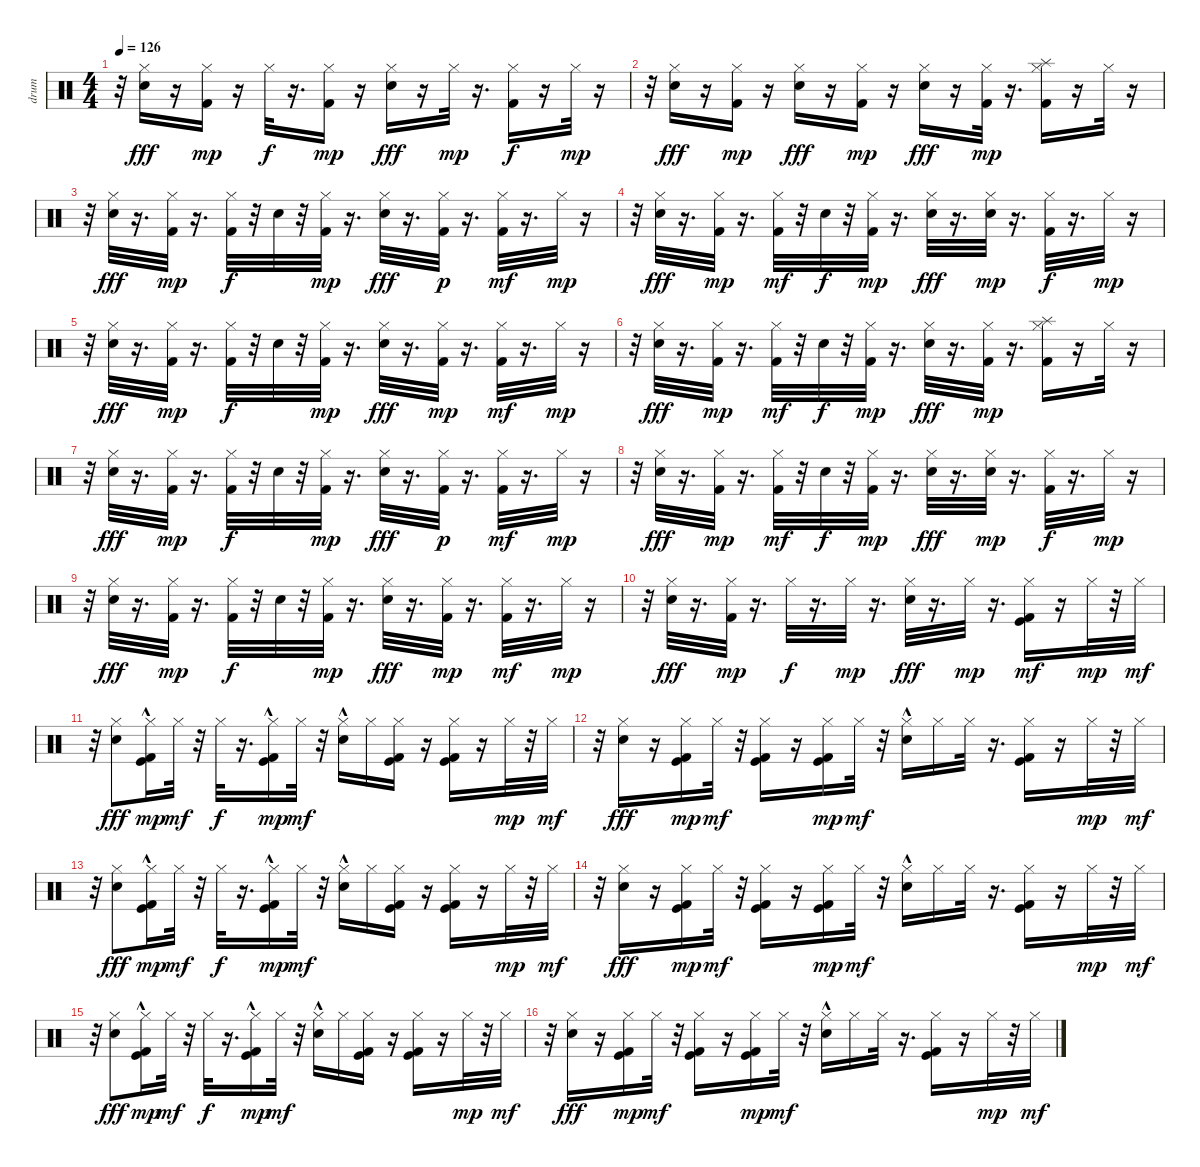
\track ("drum" "drum") {instrument percussion}
\staff {score}
\articulation defaults
\ts (4 4)
\tempo 126
\clef neutral
\ks c
r.32{dy mp} ("Electric Snare (hit)" "Hi-Hat (closed)").16{dy fff} r.16 ("Kick (hit) 2" "Hi-Hat (closed)").16{dy mp} r.16 "Hi-Hat (closed)".32{dy f} r.16{d} ("Kick (hit) 2" "Hi-Hat (closed)").16{dy mp} r.16 ("Electric Snare (hit)" "Hi-Hat (closed)").16{dy fff} r.16 "Hi-Hat (closed)".32{dy mp} r.16{d} ("Kick (hit) 2" "Hi-Hat (closed)").16{dy f} r.16 "Hi-Hat (closed)".32{dy mp} r.16 |
r.32 ("Electric Snare (hit)" "Hi-Hat (closed)").16{dy fff} r.16 ("Kick (hit) 2" "Hi-Hat (closed)").16{dy mp} r.16 ("Electric Snare (hit)" "Hi-Hat (closed)").16{dy fff} r.16 ("Kick (hit) 2" "Hi-Hat (closed)").16{dy mp} r.16 ("Electric Snare (hit)" "Hi-Hat (closed)").16{dy fff} r.16 ("Kick (hit) 2" "Hi-Hat (closed)").32{dy mp} r.16{d} ("Splash (hit)" "Kick (hit) 2" "Hi-Hat (closed)").16 r.16 "Hi-Hat (closed)".32 r.16 |
r.32 ("Electric Snare (hit)" "Hi-Hat (closed)").32{dy fff} r.16{d} ("Kick (hit) 2" "Hi-Hat (closed)").32{dy mp} r.16{d} ("Kick (hit) 2" "Hi-Hat (closed)").32{dy f} r.32 "Electric Snare (hit)".32 r.32 ("Kick (hit) 2" "Hi-Hat (closed)").32{dy mp} r.16{d} ("Electric Snare (hit)" "Hi-Hat (closed)").32{dy fff} r.16{d} ("Kick (hit) 2" "Hi-Hat (closed)").32{dy p} r.16{d} ("Kick (hit) 2" "Hi-Hat (closed)").32{dy mf} r.16{d} "Hi-Hat (closed)".32{dy mp} r.16 |
r.32 ("Electric Snare (hit)" "Hi-Hat (closed)").32{dy fff} r.16{d} ("Kick (hit) 2" "Hi-Hat (closed)").32{dy mp} r.16{d} ("Kick (hit) 2" "Hi-Hat (closed)").32{dy mf} r.32 "Electric Snare (hit)".32{dy f} r.32 ("Kick (hit) 2" "Hi-Hat (closed)").32{dy mp} r.16{d} ("Electric Snare (hit)" "Hi-Hat (closed)").32{dy fff} r.16{d} ("Electric Snare (hit)" "Hi-Hat (closed)").32{dy mp} r.16{d} ("Kick (hit) 2" "Hi-Hat (closed)").32{dy f} r.16{d} "Hi-Hat (closed)".32{dy mp} r.16 |
r.32 ("Electric Snare (hit)" "Hi-Hat (closed)").32{dy fff} r.16{d} ("Kick (hit) 2" "Hi-Hat (closed)").32{dy mp} r.16{d} ("Kick (hit) 2" "Hi-Hat (closed)").32{dy f} r.32 "Electric Snare (hit)".32 r.32 ("Kick (hit) 2" "Hi-Hat (closed)").32{dy mp} r.16{d} ("Electric Snare (hit)" "Hi-Hat (closed)").32{dy fff} r.16{d} ("Kick (hit) 2" "Hi-Hat (closed)").32{dy mp} r.16{d} ("Kick (hit) 2" "Hi-Hat (closed)").32{dy mf} r.16{d} "Hi-Hat (closed)".32{dy mp} r.16 |
r.32 ("Electric Snare (hit)" "Hi-Hat (closed)").32{dy fff} r.16{d} ("Kick (hit) 2" "Hi-Hat (closed)").32{dy mp} r.16{d} ("Kick (hit) 2" "Hi-Hat (closed)").32{dy mf} r.32 "Electric Snare (hit)".32{dy f} r.32 ("Kick (hit) 2" "Hi-Hat (closed)").32{dy mp} r.16{d} ("Electric Snare (hit)" "Hi-Hat (closed)").32{dy fff} r.16{d} ("Kick (hit) 2" "Hi-Hat (closed)").32{dy mp} r.16{d} ("Splash (hit)" "Kick (hit) 2" "Hi-Hat (closed)").16 r.16 "Hi-Hat (closed)".32 r.16 |
r.32 ("Electric Snare (hit)" "Hi-Hat (closed)").32{dy fff} r.16{d} ("Kick (hit) 2" "Hi-Hat (closed)").32{dy mp} r.16{d} ("Kick (hit) 2" "Hi-Hat (closed)").32{dy f} r.32 "Electric Snare (hit)".32 r.32 ("Kick (hit) 2" "Hi-Hat (closed)").32{dy mp} r.16{d} ("Electric Snare (hit)" "Hi-Hat (closed)").32{dy fff} r.16{d} ("Kick (hit) 2" "Hi-Hat (closed)").32{dy p} r.16{d} ("Kick (hit) 2" "Hi-Hat (closed)").32{dy mf} r.16{d} "Hi-Hat (closed)".32{dy mp} r.16 |
r.32 ("Electric Snare (hit)" "Hi-Hat (closed)").32{dy fff} r.16{d} ("Kick (hit) 2" "Hi-Hat (closed)").32{dy mp} r.16{d} ("Kick (hit) 2" "Hi-Hat (closed)").32{dy mf} r.32 "Electric Snare (hit)".32{dy f} r.32 ("Kick (hit) 2" "Hi-Hat (closed)").32{dy mp} r.16{d} ("Electric Snare (hit)" "Hi-Hat (closed)").32{dy fff} r.16{d} ("Electric Snare (hit)" "Hi-Hat (closed)").32{dy mp} r.16{d} ("Kick (hit) 2" "Hi-Hat (closed)").32{dy f} r.16{d} "Hi-Hat (closed)".32{dy mp} r.16 |
r.32 ("Electric Snare (hit)" "Hi-Hat (closed)").32{dy fff} r.16{d} ("Kick (hit) 2" "Hi-Hat (closed)").32{dy mp} r.16{d} ("Kick (hit) 2" "Hi-Hat (closed)").32{dy f} r.32 "Electric Snare (hit)".32 r.32 ("Kick (hit) 2" "Hi-Hat (closed)").32{dy mp} r.16{d} ("Electric Snare (hit)" "Hi-Hat (closed)").32{dy fff} r.16{d} ("Kick (hit) 2" "Hi-Hat (closed)").32{dy mp} r.16{d} ("Kick (hit) 2" "Hi-Hat (closed)").32{dy mf} r.16{d} "Hi-Hat (closed)".32{dy mp} r.16 |
r.32 ("Electric Snare (hit)" "Hi-Hat (closed)").32{dy fff} r.16{d} ("Kick (hit) 2" "Hi-Hat (closed)").32{dy mp} r.16{d} "Hi-Hat (closed)".32{dy f} r.16{d} "Hi-Hat (closed)".32{dy mp} r.16{d} ("Electric Snare (hit)" "Hi-Hat (closed)").32{dy fff} r.16{d} "Hi-Hat (closed)".32{dy mp} r.16{d} ("Kick (hit) 2" "Kick (hit)" "Hi-Hat (closed)").16{dy mf} r.16 "Hi-Hat (closed)".32{dy mp} r.32 "Hi-Hat (closed)".32{dy mf} |
r.32 ("Electric Snare (hit)" "Hi-Hat (closed)").8{dy fff} ("Kick (hit)" "Kick (hit) 2"{hac} "Hi-Hat (closed)").16{dy mp} "Hi-Hat (closed)".32{dy mf} r.32 "Hi-Hat (closed)".32{dy f} r.16{d} ("Kick (hit) 2"{hac} "Kick (hit)" "Hi-Hat (closed)").16{dy mp} "Hi-Hat (closed)".32{dy mf} r.32 ("Electric Snare (hit)"{hac} "Hi-Hat (closed)").16 "Hi-Hat (closed)".16 ("Kick (hit) 2" "Kick (hit)" "Hi-Hat (closed)").16 r.16 ("Kick (hit) 2" "Kick (hit)" "Hi-Hat (closed)").16 r.16 "Hi-Hat (closed)".32{dy mp} r.32 "Hi-Hat (closed)".32{dy mf} |
r.32 ("Electric Snare (hit)" "Hi-Hat (closed)").16{dy fff} r.16 ("Kick (hit) 2" "Kick (hit)" "Hi-Hat (closed)").16{dy mp} "Hi-Hat (closed)".32{dy mf} r.32 ("Kick (hit)" "Kick (hit) 2" "Hi-Hat (closed)").16 r.16 ("Kick (hit) 2" "Kick (hit)" "Hi-Hat (closed)").16{dy mp} "Hi-Hat (closed)".32{dy mf} r.32 ("Electric Snare (hit)"{hac} "Hi-Hat (closed)").16 "Hi-Hat (closed)".16 "Hi-Hat (closed)".32 r.16{d} ("Kick (hit) 2" "Kick (hit)" "Hi-Hat (closed)").16 r.16 "Hi-Hat (closed)".32{dy mp} r.32 "Hi-Hat (closed)".32{dy mf} |
r.32 ("Electric Snare (hit)" "Hi-Hat (closed)").8{dy fff} ("Kick (hit) 2"{hac} "Kick (hit)" "Hi-Hat (closed)").16{dy mp} "Hi-Hat (closed)".32{dy mf} r.32 "Hi-Hat (closed)".32{dy f} r.16{d} ("Kick (hit) 2"{hac} "Kick (hit)" "Hi-Hat (closed)").16{dy mp} "Hi-Hat (closed)".32{dy mf} r.32 ("Electric Snare (hit)"{hac} "Hi-Hat (closed)").16 "Hi-Hat (closed)".16 ("Kick (hit) 2" "Kick (hit)" "Hi-Hat (closed)").16 r.16 ("Kick (hit) 2" "Kick (hit)" "Hi-Hat (closed)").16 r.16 "Hi-Hat (closed)".32{dy mp} r.32 "Hi-Hat (closed)".32{dy mf} |
r.32 ("Electric Snare (hit)" "Hi-Hat (closed)").16{dy fff} r.16 ("Kick (hit)" "Kick (hit) 2" "Hi-Hat (closed)").16{dy mp} "Hi-Hat (closed)".32{dy mf} r.32 ("Kick (hit) 2" "Kick (hit)" "Hi-Hat (closed)").16 r.16 ("Kick (hit) 2" "Kick (hit)" "Hi-Hat (closed)").16{dy mp} "Hi-Hat (closed)".32{dy mf} r.32 ("Electric Snare (hit)"{hac} "Hi-Hat (closed)").16 "Hi-Hat (closed)".16 "Hi-Hat (closed)".32 r.16{d} ("Kick (hit)" "Kick (hit) 2" "Hi-Hat (closed)").16 r.16 "Hi-Hat (closed)".32{dy mp} r.32 "Hi-Hat (closed)".32{dy mf} |
r.32 ("Electric Snare (hit)" "Hi-Hat (closed)").8{dy fff} ("Kick (hit) 2"{hac} "Kick (hit)" "Hi-Hat (closed)").16{dy mp} "Hi-Hat (closed)".32{dy mf} r.32 "Hi-Hat (closed)".32{dy f} r.16{d} ("Kick (hit) 2"{hac} "Kick (hit)" "Hi-Hat (closed)").16{dy mp} "Hi-Hat (closed)".32{dy mf} r.32 ("Electric Snare (hit)"{hac} "Hi-Hat (closed)").16 "Hi-Hat (closed)".16 ("Kick (hit)" "Kick (hit) 2" "Hi-Hat (closed)").16 r.16 ("Kick (hit) 2" "Kick (hit)" "Hi-Hat (closed)").16 r.16 "Hi-Hat (closed)".32{dy mp} r.32 "Hi-Hat (closed)".32{dy mf} |
r.32 ("Electric Snare (hit)" "Hi-Hat (closed)").16{dy fff} r.16 ("Kick (hit) 2" "Kick (hit)" "Hi-Hat (closed)").16{dy mp} "Hi-Hat (closed)".32{dy mf} r.32 ("Kick (hit) 2" "Kick (hit)" "Hi-Hat (closed)").16 r.16 ("Kick (hit) 2" "Kick (hit)" "Hi-Hat (closed)").16{dy mp} "Hi-Hat (closed)".32{dy mf} r.32 ("Electric Snare (hit)"{hac} "Hi-Hat (closed)").16 "Hi-Hat (closed)".16 "Hi-Hat (closed)".32 r.16{d} ("Kick (hit) 2" "Kick (hit)" "Hi-Hat (closed)").16 r.16 "Hi-Hat (closed)".32{dy mp} r.32 "Hi-Hat (closed)".32{dy mf}
